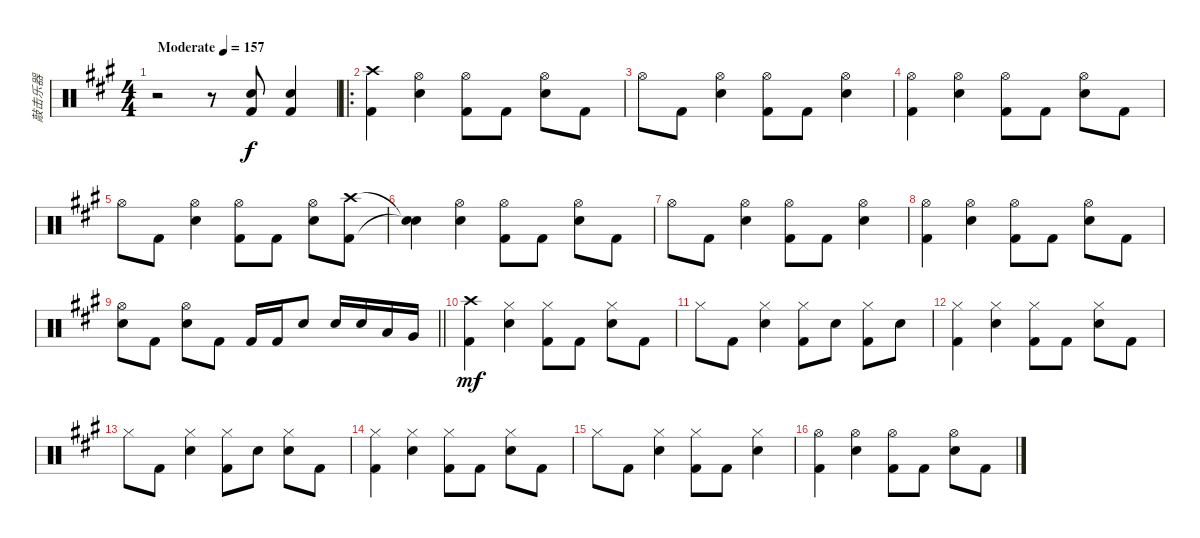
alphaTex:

\track ("敲击乐器" "敲击乐器") {instrument percussion}
\staff {score}
\articulation defaults
\ts (4 4)
\tempo (157 "Moderate")
\clef neutral
\ks f#minor
r.2{dy f} r.8 ("Electric Snare (hit)" "Kick (hit) 2").8 ("Electric Snare (hit)" "Kick (hit) 2").4 |
\ro
("Crash high (hit)" "Kick (hit) 2").4 ("Hi-Hat (open)" "Electric Snare (hit)").4 ("Hi-Hat (open)" "Kick (hit) 2").8 "Kick (hit) 2".8 ("Hi-Hat (open)" "Electric Snare (hit)").8 "Kick (hit) 2".8 |
"Hi-Hat (open)".8 "Kick (hit) 2".8 ("Hi-Hat (open)" "Electric Snare (hit)").4 ("Hi-Hat (open)" "Kick (hit) 2").8 "Kick (hit) 2".8 ("Hi-Hat (open)" "Electric Snare (hit)").4 |
("Hi-Hat (open)" "Kick (hit) 2").4 ("Hi-Hat (open)" "Electric Snare (hit)").4 ("Hi-Hat (open)" "Kick (hit) 2").8 "Kick (hit) 2".8 ("Hi-Hat (open)" "Electric Snare (hit)").8 "Kick (hit) 2".8 |
"Hi-Hat (open)".8 "Kick (hit) 2".8 ("Hi-Hat (open)" "Electric Snare (hit)").4 ("Hi-Hat (open)" "Kick (hit) 2").8 "Kick (hit) 2".8 ("Hi-Hat (open)" "Electric Snare (hit)").8 ("Crash high (hit)" "Kick (hit) 2").8 |
("Snare (hit)"{t} "Snare (hit)"{t}).4 ("Hi-Hat (open)" "Electric Snare (hit)").4 ("Hi-Hat (open)" "Kick (hit) 2").8 "Kick (hit) 2".8 ("Hi-Hat (open)" "Electric Snare (hit)").8 "Kick (hit) 2".8 |
"Hi-Hat (open)".8 "Kick (hit) 2".8 ("Hi-Hat (open)" "Electric Snare (hit)").4 ("Hi-Hat (open)" "Kick (hit) 2").8 "Kick (hit) 2".8 ("Hi-Hat (open)" "Electric Snare (hit)").4 |
("Hi-Hat (open)" "Kick (hit) 2").4 ("Hi-Hat (open)" "Electric Snare (hit)").4 ("Hi-Hat (open)" "Kick (hit) 2").8 "Kick (hit) 2".8 ("Hi-Hat (open)" "Electric Snare (hit)").8 "Kick (hit) 2".8 |
\barLineRight lightlight
("Hi-Hat (open)" "Electric Snare (hit)").8 "Kick (hit) 2".8 ("Hi-Hat (open)" "Electric Snare (hit)").8 "Kick (hit) 2".8 "Kick (hit) 2".16 "Kick (hit) 2".16 "Electric Snare (hit)".8 "Electric Snare (hit)".16 "Electric Snare (hit)".16 "Low Tom (hit)".16 "Very Low Tom (hit)".16 |
("Crash high (hit)" "Kick (hit) 2").4{dy mf} ("Hi-Hat (closed)" "Electric Snare (hit)").4 ("Hi-Hat (closed)" "Kick (hit) 2").8 "Kick (hit) 2".8 ("Hi-Hat (closed)" "Electric Snare (hit)").8 "Kick (hit) 2".8 |
"Hi-Hat (closed)".8 "Kick (hit) 2".8 ("Hi-Hat (closed)" "Electric Snare (hit)").4 ("Hi-Hat (closed)" "Kick (hit) 2").8 "Electric Snare (hit)".8 ("Hi-Hat (closed)" "Kick (hit) 2").8 "Electric Snare (hit)".8 |
("Hi-Hat (closed)" "Kick (hit) 2").4 ("Hi-Hat (closed)" "Electric Snare (hit)").4 ("Hi-Hat (closed)" "Kick (hit) 2").8 "Kick (hit) 2".8 ("Hi-Hat (closed)" "Electric Snare (hit)").8 "Kick (hit) 2".8 |
"Hi-Hat (closed)".8 "Kick (hit) 2".8 ("Hi-Hat (closed)" "Electric Snare (hit)").4 ("Hi-Hat (closed)" "Kick (hit) 2").8 "Electric Snare (hit)".8 ("Hi-Hat (closed)" "Electric Snare (hit)").8 "Kick (hit) 2".8 |
("Hi-Hat (closed)" "Kick (hit) 2").4 ("Hi-Hat (closed)" "Electric Snare (hit)").4 ("Hi-Hat (closed)" "Kick (hit) 2").8 "Kick (hit) 2".8 ("Hi-Hat (closed)" "Electric Snare (hit)").8 "Kick (hit) 2".8 |
"Hi-Hat (closed)".8 "Kick (hit) 2".8 ("Hi-Hat (closed)" "Electric Snare (hit)").4 ("Hi-Hat (closed)" "Kick (hit) 2").8 "Kick (hit) 2".8 ("Hi-Hat (closed)" "Electric Snare (hit)").4 |
("Hi-Hat (open)" "Kick (hit) 2").4 ("Hi-Hat (open)" "Electric Snare (hit)").4 ("Hi-Hat (open)" "Kick (hit) 2").8 "Kick (hit) 2".8 ("Hi-Hat (open)" "Electric Snare (hit)").8 "Kick (hit) 2".8
